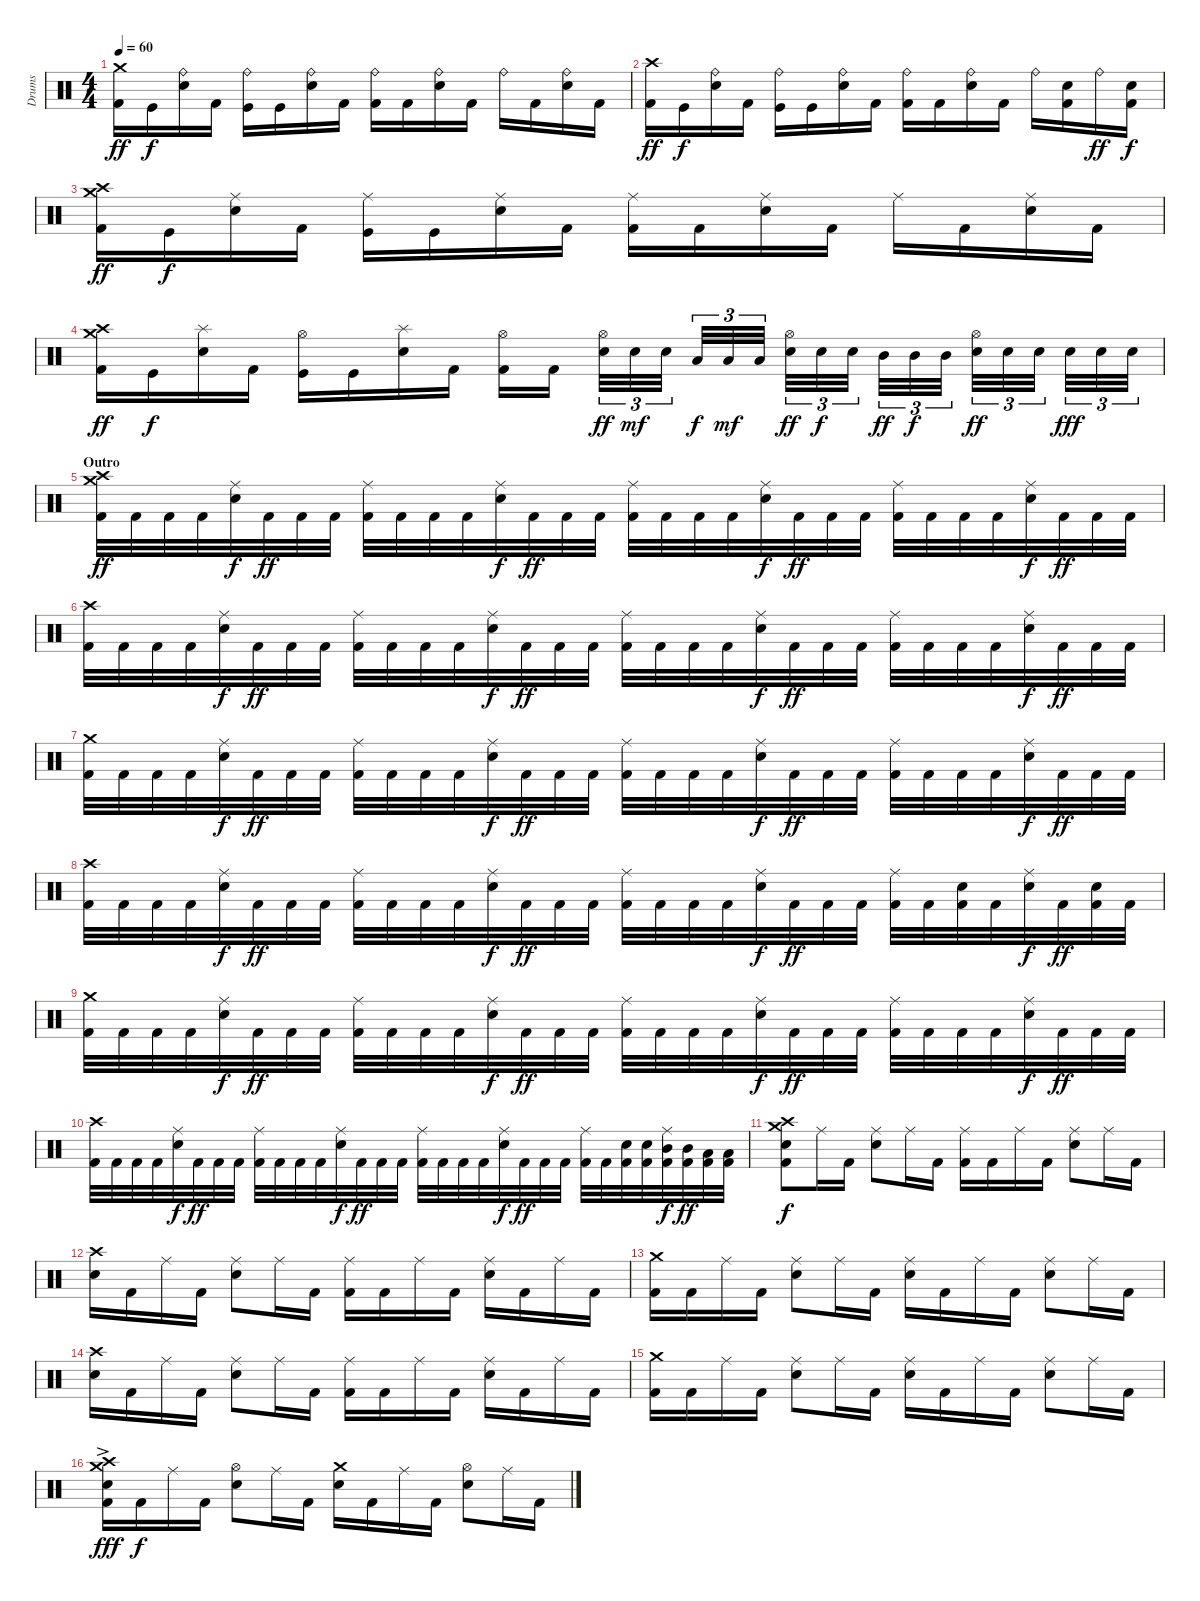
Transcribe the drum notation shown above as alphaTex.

\track ("Drums" "Drums") {instrument percussion}
\staff {score}
\articulation defaults
\ts (4 4)
\tempo 60
\clef neutral
\ks c
("Crash medium (hit)" "Kick (hit) 2").16{dy ff} "Kick (hit)".16{dy f} ("Ride (bell)" "Snare (hit) 2").16 "Kick (hit) 2".16 ("Ride (bell)" "Kick (hit)").16 "Kick (hit)".16 ("Ride (bell)" "Snare (hit) 2").16 "Kick (hit) 2".16 ("Ride (bell)" "Kick (hit) 2").16 "Kick (hit) 2".16 ("Ride (bell)" "Snare (hit) 2").16 "Kick (hit) 2".16 "Ride (bell)".16 "Kick (hit) 2".16 ("Ride (bell)" "Snare (hit) 2").16 "Kick (hit) 2".16 |
("Crash high (hit)" "Kick (hit) 2").16{dy ff} "Kick (hit)".16{dy f} ("Ride (bell)" "Snare (hit) 2").16 "Kick (hit) 2".16 ("Ride (bell)" "Kick (hit)").16 "Kick (hit)".16 ("Ride (bell)" "Snare (hit) 2").16 "Kick (hit) 2".16 ("Ride (bell)" "Kick (hit) 2").16 "Kick (hit) 2".16 ("Ride (bell)" "Snare (hit) 2").16 "Kick (hit) 2".16 "Ride (bell)".16 ("Snare (hit) 2" "Kick (hit) 2").16 "Ride (bell)".16{dy ff} ("Snare (hit) 2" "Kick (hit) 2").16{dy f} |
("Crash medium (hit)" "Crash high (hit)" "Kick (hit) 2").16{dy ff} "Kick (hit)".16{dy f} ("Ride (middle)" "Snare (hit) 2").16 "Kick (hit) 2".16 ("Ride (middle)" "Kick (hit)").16 "Kick (hit)".16 ("Ride (middle)" "Snare (hit) 2").16 "Kick (hit) 2".16 ("Ride (middle)" "Kick (hit) 2").16 "Kick (hit) 2".16 ("Ride (middle)" "Snare (hit) 2").16 "Kick (hit) 2".16 "Ride (middle)".16 "Kick (hit) 2".16 ("Ride (middle)" "Snare (hit) 2").16 "Kick (hit) 2".16 |
("Crash medium (hit)" "Crash high (hit)" "Kick (hit) 2").16{dy ff} "Kick (hit)".16{dy f} ("Splash (hit)" "Snare (hit) 2").16 "Kick (hit) 2".16 ("Hi-Hat (open)" "Kick (hit)").16 "Kick (hit)".16 ("Splash (hit)" "Snare (hit) 2").16 "Kick (hit) 2".16 ("Hi-Hat (open)" "Kick (hit) 2").16 "Kick (hit) 2".16 ("Hi-Hat (open)" "Snare (hit) 2").32{tu (3 2) dy ff} "Snare (hit) 2".32{tu (3 2) dy mf} "Snare (hit) 2".32{tu (3 2)} "Low Tom (hit)".32{tu (3 2) dy f} "Low Tom (hit)".32{tu (3 2) dy mf} "Low Tom (hit)".32{tu (3 2)} ("Hi-Hat (open)" "Snare (hit) 2").32{tu (3 2) dy ff} "Snare (hit) 2".32{tu (3 2) dy f} "Snare (hit) 2".32{tu (3 2)} "Mid Tom (hit)".32{tu (3 2) dy ff} "Mid Tom (hit)".32{tu (3 2) dy f} "Mid Tom (hit)".32{tu (3 2)} ("Hi-Hat (open)" "Snare (hit) 2").32{tu (3 2) dy ff} "Snare (hit) 2".32{tu (3 2)} "Snare (hit) 2".32{tu (3 2)} "Snare (hit) 2".32{tu (3 2) dy fff} "Snare (hit) 2".32{tu (3 2)} "Snare (hit) 2".32{tu (3 2)} |
\section ("" "Outro")
("Crash medium (hit)" "Crash high (hit)" "Kick (hit) 2").32{dy ff} "Kick (hit) 2".32 "Kick (hit) 2".32 "Kick (hit) 2".32 ("Ride (middle)" "Snare (hit) 2").32{dy f} "Kick (hit) 2".32{dy ff} "Kick (hit) 2".32 "Kick (hit) 2".32 ("Ride (middle)" "Kick (hit) 2").32 "Kick (hit) 2".32 "Kick (hit) 2".32 "Kick (hit) 2".32 ("Ride (middle)" "Snare (hit) 2").32{dy f} "Kick (hit) 2".32{dy ff} "Kick (hit) 2".32 "Kick (hit) 2".32 ("Ride (middle)" "Kick (hit) 2").32 "Kick (hit) 2".32 "Kick (hit) 2".32 "Kick (hit) 2".32 ("Ride (middle)" "Snare (hit) 2").32{dy f} "Kick (hit) 2".32{dy ff} "Kick (hit) 2".32 "Kick (hit) 2".32 ("Ride (middle)" "Kick (hit) 2").32 "Kick (hit) 2".32 "Kick (hit) 2".32 "Kick (hit) 2".32 ("Ride (middle)" "Snare (hit) 2").32{dy f} "Kick (hit) 2".32{dy ff} "Kick (hit) 2".32 "Kick (hit) 2".32 |
("Crash high (hit)" "Kick (hit) 2").32 "Kick (hit) 2".32 "Kick (hit) 2".32 "Kick (hit) 2".32 ("Ride (middle)" "Snare (hit) 2").32{dy f} "Kick (hit) 2".32{dy ff} "Kick (hit) 2".32 "Kick (hit) 2".32 ("Ride (middle)" "Kick (hit) 2").32 "Kick (hit) 2".32 "Kick (hit) 2".32 "Kick (hit) 2".32 ("Ride (middle)" "Snare (hit) 2").32{dy f} "Kick (hit) 2".32{dy ff} "Kick (hit) 2".32 "Kick (hit) 2".32 ("Ride (middle)" "Kick (hit) 2").32 "Kick (hit) 2".32 "Kick (hit) 2".32 "Kick (hit) 2".32 ("Ride (middle)" "Snare (hit) 2").32{dy f} "Kick (hit) 2".32{dy ff} "Kick (hit) 2".32 "Kick (hit) 2".32 ("Ride (middle)" "Kick (hit) 2").32 "Kick (hit) 2".32 "Kick (hit) 2".32 "Kick (hit) 2".32 ("Ride (middle)" "Snare (hit) 2").32{dy f} "Kick (hit) 2".32{dy ff} "Kick (hit) 2".32 "Kick (hit) 2".32 |
("Crash medium (hit)" "Kick (hit) 2").32 "Kick (hit) 2".32 "Kick (hit) 2".32 "Kick (hit) 2".32 ("Ride (middle)" "Snare (hit) 2").32{dy f} "Kick (hit) 2".32{dy ff} "Kick (hit) 2".32 "Kick (hit) 2".32 ("Ride (middle)" "Kick (hit) 2").32 "Kick (hit) 2".32 "Kick (hit) 2".32 "Kick (hit) 2".32 ("Ride (middle)" "Snare (hit) 2").32{dy f} "Kick (hit) 2".32{dy ff} "Kick (hit) 2".32 "Kick (hit) 2".32 ("Ride (middle)" "Kick (hit) 2").32 "Kick (hit) 2".32 "Kick (hit) 2".32 "Kick (hit) 2".32 ("Ride (middle)" "Snare (hit) 2").32{dy f} "Kick (hit) 2".32{dy ff} "Kick (hit) 2".32 "Kick (hit) 2".32 ("Ride (middle)" "Kick (hit) 2").32 "Kick (hit) 2".32 "Kick (hit) 2".32 "Kick (hit) 2".32 ("Ride (middle)" "Snare (hit) 2").32{dy f} "Kick (hit) 2".32{dy ff} "Kick (hit) 2".32 "Kick (hit) 2".32 |
("Crash high (hit)" "Kick (hit) 2").32 "Kick (hit) 2".32 "Kick (hit) 2".32 "Kick (hit) 2".32 ("Ride (middle)" "Snare (hit) 2").32{dy f} "Kick (hit) 2".32{dy ff} "Kick (hit) 2".32 "Kick (hit) 2".32 ("Ride (middle)" "Kick (hit) 2").32 "Kick (hit) 2".32 "Kick (hit) 2".32 "Kick (hit) 2".32 ("Ride (middle)" "Snare (hit) 2").32{dy f} "Kick (hit) 2".32{dy ff} "Kick (hit) 2".32 "Kick (hit) 2".32 ("Ride (middle)" "Kick (hit) 2").32 "Kick (hit) 2".32 "Kick (hit) 2".32 "Kick (hit) 2".32 ("Ride (middle)" "Snare (hit) 2").32{dy f} "Kick (hit) 2".32{dy ff} "Kick (hit) 2".32 "Kick (hit) 2".32 ("Ride (middle)" "Kick (hit) 2").32 "Kick (hit) 2".32 ("Snare (hit) 2" "Kick (hit) 2").32 "Kick (hit) 2".32 ("Ride (middle)" "Snare (hit) 2").32{dy f} "Kick (hit) 2".32{dy ff} ("Snare (hit) 2" "Kick (hit) 2").32 "Kick (hit) 2".32 |
("Crash medium (hit)" "Kick (hit) 2").32 "Kick (hit) 2".32 "Kick (hit) 2".32 "Kick (hit) 2".32 ("Ride (middle)" "Snare (hit) 2").32{dy f} "Kick (hit) 2".32{dy ff} "Kick (hit) 2".32 "Kick (hit) 2".32 ("Ride (middle)" "Kick (hit) 2").32 "Kick (hit) 2".32 "Kick (hit) 2".32 "Kick (hit) 2".32 ("Ride (middle)" "Snare (hit) 2").32{dy f} "Kick (hit) 2".32{dy ff} "Kick (hit) 2".32 "Kick (hit) 2".32 ("Ride (middle)" "Kick (hit) 2").32 "Kick (hit) 2".32 "Kick (hit) 2".32 "Kick (hit) 2".32 ("Ride (middle)" "Snare (hit) 2").32{dy f} "Kick (hit) 2".32{dy ff} "Kick (hit) 2".32 "Kick (hit) 2".32 ("Ride (middle)" "Kick (hit) 2").32 "Kick (hit) 2".32 "Kick (hit) 2".32 "Kick (hit) 2".32 ("Ride (middle)" "Snare (hit) 2").32{dy f} "Kick (hit) 2".32{dy ff} "Kick (hit) 2".32 "Kick (hit) 2".32 |
("Crash high (hit)" "Kick (hit) 2").32 "Kick (hit) 2".32 "Kick (hit) 2".32 "Kick (hit) 2".32 ("Ride (middle)" "Snare (hit) 2").32{dy f} "Kick (hit) 2".32{dy ff} "Kick (hit) 2".32 "Kick (hit) 2".32 ("Ride (middle)" "Kick (hit) 2").32 "Kick (hit) 2".32 "Kick (hit) 2".32 "Kick (hit) 2".32 ("Ride (middle)" "Snare (hit) 2").32{dy f} "Kick (hit) 2".32{dy ff} "Kick (hit) 2".32 "Kick (hit) 2".32 ("Ride (middle)" "Kick (hit) 2").32 "Kick (hit) 2".32 "Kick (hit) 2".32 "Kick (hit) 2".32 ("Ride (middle)" "Snare (hit) 2").32{dy f} "Kick (hit) 2".32{dy ff} "Kick (hit) 2".32 "Kick (hit) 2".32 ("Ride (middle)" "Kick (hit) 2").32 "Kick (hit) 2".32 ("Snare (hit) 2" "Kick (hit) 2").32 ("Snare (hit) 2" "Kick (hit) 2").32 ("Ride (middle)" "Mid Tom (hit)" "Kick (hit) 2").32{dy f} ("Mid Tom (hit)" "Kick (hit) 2").32{dy ff} ("Low Tom (hit)" "Kick (hit) 2").32 ("Low Tom (hit)" "Kick (hit) 2").32 |
("Crash medium (hit)" "Crash high (hit)" "Snare (hit) 2" "Kick (hit) 2").8{dy f} "Ride (middle)".16 "Kick (hit) 2".16 ("Ride (middle)" "Snare (hit) 2").8 "Ride (middle)".16 "Kick (hit) 2".16 ("Ride (middle)" "Kick (hit) 2").16 "Kick (hit) 2".16 "Ride (middle)".16 "Kick (hit) 2".16 ("Ride (middle)" "Snare (hit) 2").8 "Ride (middle)".16 "Kick (hit) 2".16 |
("Crash high (hit)" "Snare (hit) 2").16 "Kick (hit) 2".16 "Ride (middle)".16 "Kick (hit) 2".16 ("Ride (middle)" "Snare (hit) 2").8 "Ride (middle)".16 "Kick (hit) 2".16 ("Ride (middle)" "Kick (hit) 2").16 "Kick (hit) 2".16 "Ride (middle)".16 "Kick (hit) 2".16 ("Ride (middle)" "Snare (hit) 2").16 "Kick (hit) 2".16 "Ride (middle)".16 "Kick (hit) 2".16 |
("Crash medium (hit)" "Kick (hit) 2").16 "Kick (hit) 2".16 "Ride (middle)".16 "Kick (hit) 2".16 ("Ride (middle)" "Snare (hit) 2").8 "Ride (middle)".16 "Kick (hit) 2".16 ("Ride (middle)" "Snare (hit) 2").16 "Kick (hit) 2".16 "Ride (middle)".16 "Kick (hit) 2".16 ("Ride (middle)" "Snare (hit) 2").8 "Ride (middle)".16 "Kick (hit) 2".16 |
("Crash high (hit)" "Snare (hit) 2").16 "Kick (hit) 2".16 "Ride (middle)".16 "Kick (hit) 2".16 ("Ride (middle)" "Snare (hit) 2").8 "Ride (middle)".16 "Kick (hit) 2".16 ("Ride (middle)" "Kick (hit) 2").16 "Kick (hit) 2".16 "Ride (middle)".16 "Kick (hit) 2".16 ("Ride (middle)" "Snare (hit) 2").16 "Kick (hit) 2".16 "Ride (middle)".16 "Kick (hit) 2".16 |
("Crash medium (hit)" "Kick (hit) 2").16 "Kick (hit) 2".16 "Ride (middle)".16 "Kick (hit) 2".16 ("Ride (middle)" "Snare (hit) 2").8 "Ride (middle)".16 "Kick (hit) 2".16 ("Ride (middle)" "Snare (hit) 2").16 "Kick (hit) 2".16 "Ride (middle)".16 "Kick (hit) 2".16 ("Ride (middle)" "Snare (hit) 2").8 "Ride (middle)".16 "Kick (hit) 2".16 |
("Crash medium (hit)"{ac} "Crash high (hit)"{ac} "Snare (hit) 2" "Kick (hit) 2").16{dy fff} "Kick (hit) 2".16{dy f} "Ride (middle)".16 "Kick (hit) 2".16 ("Hi-Hat (open)" "Snare (hit) 2").8 "Ride (middle)".16 "Kick (hit) 2".16 ("Crash medium (hit)" "Snare (hit) 2").16 "Kick (hit) 2".16 "Ride (middle)".16 "Kick (hit) 2".16 ("Hi-Hat (open)" "Snare (hit) 2").8 "Ride (middle)".16 "Kick (hit) 2".16
